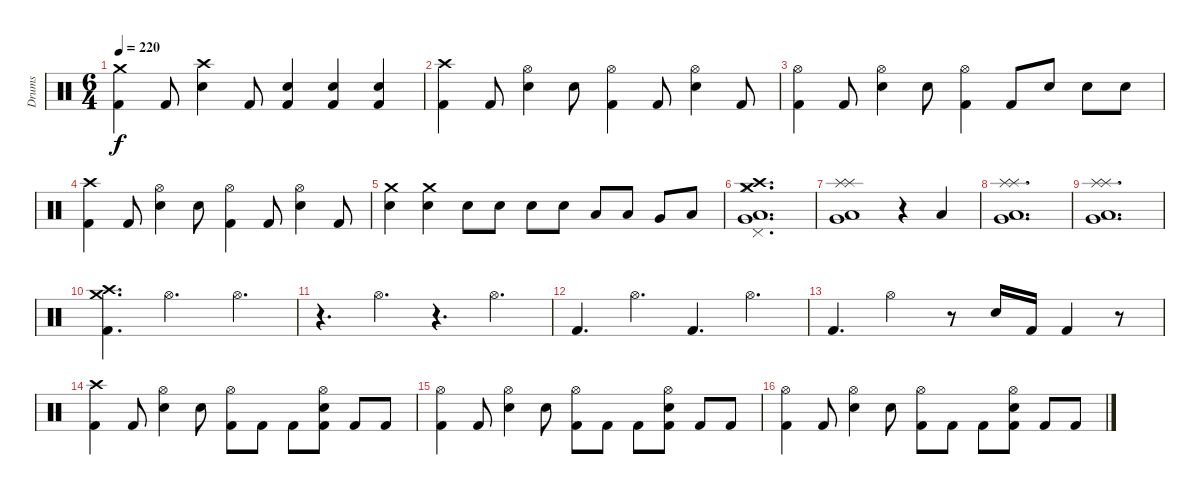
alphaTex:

\track ("Drums" "Drums") {instrument percussion}
\staff {score}
\articulation defaults
\ts (6 4)
\tempo 220
\clef neutral
\ks c
("Crash medium (hit)" "Kick (hit) 2").4{dy f} "Kick (hit) 2".8 ("Crash high (hit)" "Electric Snare (hit)").4 "Kick (hit) 2".8 ("Electric Snare (hit)" "Kick (hit) 2").4 ("Electric Snare (hit)" "Kick (hit) 2").4 ("Electric Snare (hit)" "Kick (hit) 2").4 |
("Crash high (hit)" "Kick (hit) 2").4 "Kick (hit) 2".8 ("Hi-Hat (open)" "Electric Snare (hit)").4 "Electric Snare (hit)".8 ("Hi-Hat (open)" "Kick (hit) 2").4 "Kick (hit) 2".8 ("Hi-Hat (open)" "Electric Snare (hit)").4 "Kick (hit) 2".8 |
("Hi-Hat (open)" "Kick (hit) 2").4 "Kick (hit) 2".8 ("Hi-Hat (open)" "Electric Snare (hit)").4 "Electric Snare (hit)".8 ("Hi-Hat (open)" "Kick (hit) 2").4 "Kick (hit) 2".8 "Electric Snare (hit)".8 "Electric Snare (hit)".8 "Electric Snare (hit)".8 |
("Crash high (hit)" "Kick (hit) 2").4 "Kick (hit) 2".8 ("Hi-Hat (open)" "Electric Snare (hit)").4 "Electric Snare (hit)".8 ("Hi-Hat (open)" "Kick (hit) 2").4 "Kick (hit) 2".8 ("Hi-Hat (open)" "Electric Snare (hit)").4 "Kick (hit) 2".8 |
("Crash medium (hit)" "Electric Snare (hit)").4 ("Crash medium (hit)" "Electric Snare (hit)").4 "Electric Snare (hit)".8 "Electric Snare (hit)".8 "Electric Snare (hit)".8 "Electric Snare (hit)".8 "Low Tom (hit)".8 "Low Tom (hit)".8 "Very Low Tom (hit)".8 "Low Floor Tom (hit)".8 |
("Crash medium (hit)" "Crash high (hit)" "Pedal Hi-Hat (hit)" "Hi-Hat (closed)" "Very Low Tom (hit)" "Low Floor Tom (hit)").1{d} |
("Splash (hit)" "Splash (hit)" "Very Low Tom (hit)" "Low Floor Tom (hit)").1 r.4 "Low Floor Tom (hit)".4 |
("Splash (hit)" "Splash (hit)" "Very Low Tom (hit)" "Low Floor Tom (hit)").1{d} |
("Splash (hit)" "Splash (hit)" "Very Low Tom (hit)" "Low Floor Tom (hit)").1{d} |
("Crash medium (hit)" "Crash high (hit)" "Kick (hit) 2").4{d} "Hi-Hat (open)".2{d} "Hi-Hat (open)".4{d} |
r.4{d} "Hi-Hat (open)".4{d} r.4{d} "Hi-Hat (open)".4{d} |
"Kick (hit) 2".4{d} "Hi-Hat (open)".4{d} "Kick (hit) 2".4{d} "Hi-Hat (open)".4{d} |
"Kick (hit) 2".4{d} "Hi-Hat (open)".2 r.8 "Electric Snare (hit)".16 "Kick (hit) 2".16 "Kick (hit) 2".4 r.8 |
("Crash high (hit)" "Kick (hit) 2").4 "Kick (hit) 2".8 ("Hi-Hat (open)" "Electric Snare (hit)").4 "Electric Snare (hit)".8 ("Hi-Hat (open)" "Kick (hit) 2").8 "Kick (hit) 2".8 "Kick (hit) 2".8 ("Hi-Hat (open)" "Electric Snare (hit)" "Kick (hit) 2").8 "Kick (hit) 2".8 "Kick (hit) 2".8 |
("Hi-Hat (open)" "Kick (hit) 2").4 "Kick (hit) 2".8 ("Hi-Hat (open)" "Electric Snare (hit)").4 "Electric Snare (hit)".8 ("Hi-Hat (open)" "Kick (hit) 2").8 "Kick (hit) 2".8 "Kick (hit) 2".8 ("Hi-Hat (open)" "Electric Snare (hit)" "Kick (hit) 2").8 "Kick (hit) 2".8 "Kick (hit) 2".8 |
("Hi-Hat (open)" "Kick (hit) 2").4 "Kick (hit) 2".8 ("Hi-Hat (open)" "Electric Snare (hit)").4 "Electric Snare (hit)".8 ("Hi-Hat (open)" "Kick (hit) 2").8 "Kick (hit) 2".8 "Kick (hit) 2".8 ("Hi-Hat (open)" "Electric Snare (hit)" "Kick (hit) 2").8 "Kick (hit) 2".8 "Kick (hit) 2".8
